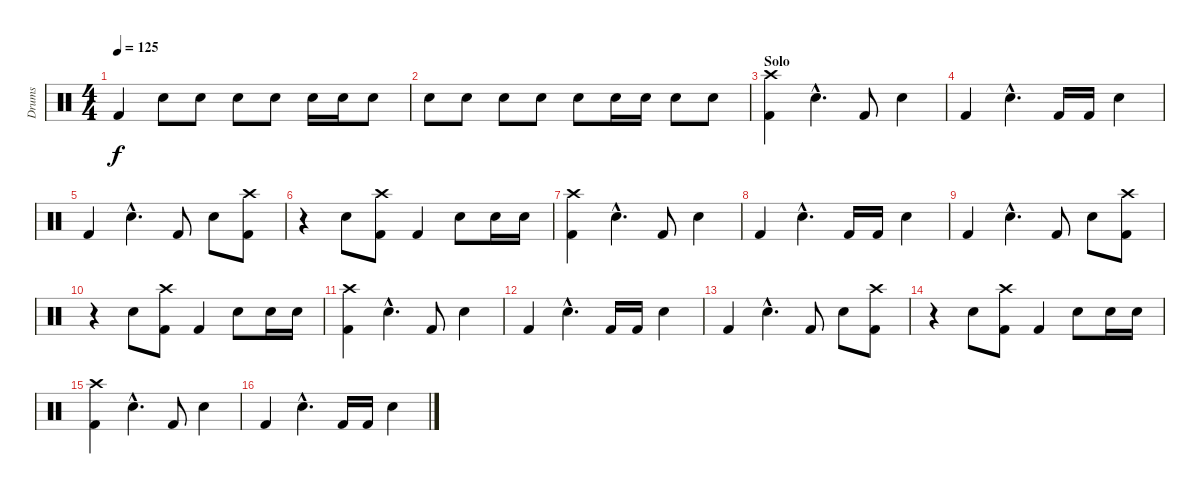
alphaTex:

\track ("Drums" "Drums") {instrument percussion}
\staff {score}
\articulation defaults
\ts (4 4)
\tempo 125
\clef neutral
\ks c "Kick (hit) 2".4{dy f} "Snare (hit) 2".8 "Snare (hit) 2".8 "Snare (hit) 2".8 "Snare (hit) 2".8 "Snare (hit) 2".16 "Snare (hit) 2".16 "Snare (hit) 2".8
|
"Snare (hit) 2".8 "Snare (hit) 2".8 "Snare (hit) 2".8 "Snare (hit) 2".8 "Snare (hit) 2".8 "Snare (hit) 2".16 "Snare (hit) 2".16 "Snare (hit) 2".8 "Snare (hit) 2".8 |
\section ("" "Solo")
("Kick (hit) 2" "Crash high (hit)").4 "Snare (hit) 2"{hac}.4{d} "Kick (hit) 2".8 "Snare (hit) 2".4 |
"Kick (hit) 2".4 "Snare (hit) 2"{hac}.4{d} "Kick (hit) 2".16 "Kick (hit) 2".16 "Snare (hit) 2".4 |
"Kick (hit) 2".4 "Snare (hit) 2"{hac}.4{d} "Kick (hit) 2".8 "Snare (hit) 2".8 ("Crash high (hit)" "Kick (hit) 2").8 |
r.4 "Snare (hit) 2".8 ("Kick (hit) 2" "Crash high (hit)").8 "Kick (hit) 2".4 "Snare (hit) 2".8 "Snare (hit) 2".16 "Snare (hit) 2".16 |
("Kick (hit) 2" "Crash high (hit)").4 "Snare (hit) 2"{hac}.4{d} "Kick (hit) 2".8 "Snare (hit) 2".4 |
"Kick (hit) 2".4 "Snare (hit) 2"{hac}.4{d} "Kick (hit) 2".16 "Kick (hit) 2".16 "Snare (hit) 2".4 |
"Kick (hit) 2".4 "Snare (hit) 2"{hac}.4{d} "Kick (hit) 2".8 "Snare (hit) 2".8 ("Crash high (hit)" "Kick (hit) 2").8 |
r.4 "Snare (hit) 2".8 ("Kick (hit) 2" "Crash high (hit)").8 "Kick (hit) 2".4 "Snare (hit) 2".8 "Snare (hit) 2".16 "Snare (hit) 2".16 |
("Kick (hit) 2" "Crash high (hit)").4 "Snare (hit) 2"{hac}.4{d} "Kick (hit) 2".8 "Snare (hit) 2".4 |
"Kick (hit) 2".4 "Snare (hit) 2"{hac}.4{d} "Kick (hit) 2".16 "Kick (hit) 2".16 "Snare (hit) 2".4 |
"Kick (hit) 2".4 "Snare (hit) 2"{hac}.4{d} "Kick (hit) 2".8 "Snare (hit) 2".8 ("Crash high (hit)" "Kick (hit) 2").8 |
r.4 "Snare (hit) 2".8 ("Kick (hit) 2" "Crash high (hit)").8 "Kick (hit) 2".4 "Snare (hit) 2".8 "Snare (hit) 2".16 "Snare (hit) 2".16 |
("Kick (hit) 2" "Crash high (hit)").4 "Snare (hit) 2"{hac}.4{d} "Kick (hit) 2".8 "Snare (hit) 2".4 |
"Kick (hit) 2".4 "Snare (hit) 2"{hac}.4{d} "Kick (hit) 2".16 "Kick (hit) 2".16 "Snare (hit) 2".4
